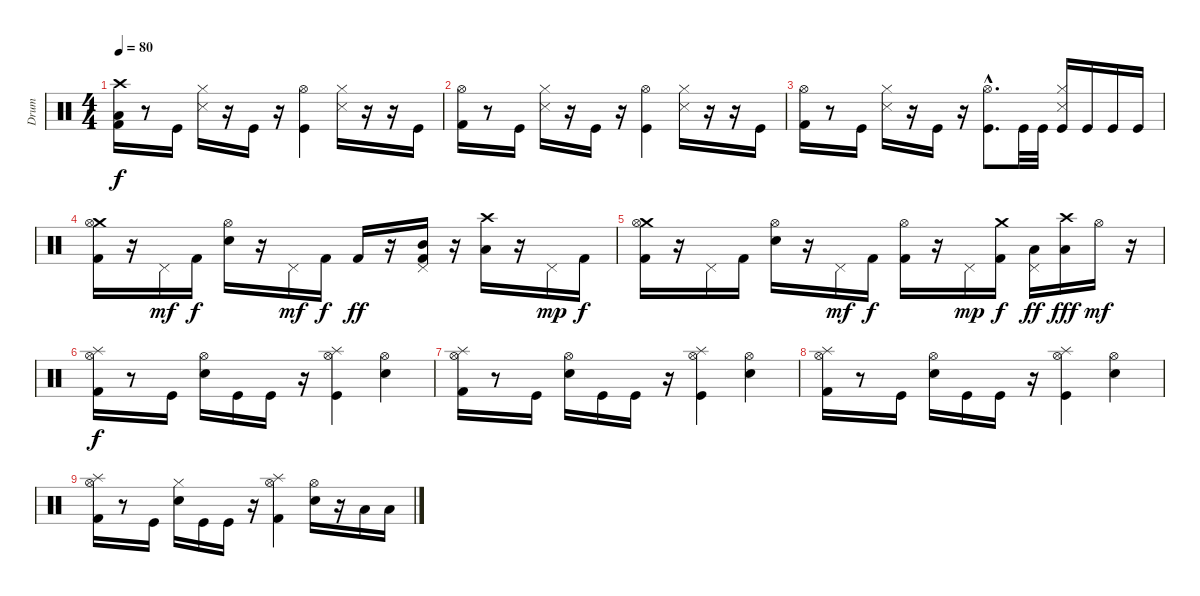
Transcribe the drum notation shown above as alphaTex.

\track ("Drum" "Drum") {instrument percussion}
\staff {score}
\articulation defaults
\ts (4 4)
\tempo 80
\clef neutral
\ks c
("Crash high (hit)" "Low Floor Tom (hit)" "Kick (hit) 2").16{dy f} r.8 "Kick (hit)".16 ("Hi-Hat (closed)" "Snare (side stick) 3").16 r.16 "Kick (hit)".16 r.16 ("Hi-Hat (open)" "Kick (hit)").4 ("Hi-Hat (closed)" "Snare (side stick) 3").16 r.16 r.16 "Kick (hit)".16 |
("Hi-Hat (open)" "Kick (hit) 2").16 r.8 "Kick (hit)".16 ("Hi-Hat (closed)" "Snare (side stick) 3").16 r.16 "Kick (hit)".16 r.16 ("Hi-Hat (open)" "Kick (hit)").4 ("Hi-Hat (closed)" "Snare (side stick) 3").16 r.16 r.16 "Kick (hit)".16 |
("Hi-Hat (open)" "Kick (hit) 2").16 r.8 "Kick (hit)".16 ("Hi-Hat (closed)" "Snare (side stick) 3").16 r.16 "Kick (hit)".16 r.16 ("Hi-Hat (open)"{hac} "Kick (hit)"{hac}).8{d} "Kick (hit)".32 "Kick (hit)".32 ("Hi-Hat (closed)" "Snare (side stick) 3" "Kick (hit)").16 "Kick (hit)".16 "Kick (hit)".16 "Kick (hit)".16 |
("Crash medium (hit)" "Hi-Hat (open)" "Kick (hit) 2").16 r.16 "Pedal Hi-Hat (hit)".16{dy mf} "Kick (hit) 2".16{dy f} ("Hi-Hat (open)" "Snare (hit) 2").16 r.16 "Pedal Hi-Hat (hit)".16{dy mf} "Kick (hit) 2".16{dy f} "Kick (hit) 2".16{dy ff} r.16 ("Pedal Hi-Hat (hit)" "Mid Tom (hit)" "Kick (hit) 2").16 r.16 ("Crash high (hit)" "Low Tom (hit)").16 r.16 "Pedal Hi-Hat (hit)".16{dy mp} "Kick (hit) 2".16{dy f} |
("Crash medium (hit)" "Hi-Hat (open)" "Kick (hit) 2").16 r.16 "Pedal Hi-Hat (hit)".16 "Kick (hit) 2".16 ("Hi-Hat (open)" "Snare (hit) 2").16 r.16 "Pedal Hi-Hat (hit)".16{dy mf} "Kick (hit) 2".16{dy f} ("Hi-Hat (open)" "Kick (hit) 2").16 r.16 "Pedal Hi-Hat (hit)".16{dy mp} ("Crash medium (hit)" "Kick (hit) 2").16{dy f} ("Low Tom (hit)" "Pedal Hi-Hat (hit)").16{dy ff} ("Crash high (hit)" "Low Tom (hit)").16{dy fff} "Hi-Hat (open)".16{dy mf} r.16 |
("Splash (hit)" "Hi-Hat (open)" "Kick (hit) 2").16{dy f} r.8 "Kick (hit)".16 ("Hi-Hat (open)" "Snare (hit) 2").16 "Kick (hit)".16 "Kick (hit)".16 r.16 ("Splash (hit)" "Hi-Hat (open)" "Kick (hit)").4 ("Hi-Hat (open)" "Snare (hit) 2").4 |
("Splash (hit)" "Hi-Hat (open)" "Kick (hit) 2").16 r.8 "Kick (hit)".16 ("Hi-Hat (open)" "Snare (hit) 2").16 "Kick (hit)".16 "Kick (hit)".16 r.16 ("Splash (hit)" "Hi-Hat (open)" "Kick (hit)").4 ("Hi-Hat (open)" "Snare (hit) 2").4 |
("Splash (hit)" "Hi-Hat (open)" "Kick (hit) 2").16 r.8 "Kick (hit)".16 ("Hi-Hat (open)" "Snare (hit) 2").16 "Kick (hit)".16 "Kick (hit)".16 r.16 ("Splash (hit)" "Hi-Hat (open)" "Kick (hit)").4 ("Hi-Hat (open)" "Snare (hit) 2").4 |
("Splash (hit)" "Hi-Hat (open)" "Kick (hit) 2").16 r.8 "Kick (hit)".16 ("Hi-Hat (closed)" "Snare (hit) 2").16 "Kick (hit)".16 "Kick (hit)".16 r.16 ("Splash (hit)" "Hi-Hat (open)" "Kick (hit) 2").4 ("Hi-Hat (open)" "Snare (hit) 2").16 r.16 "Low Floor Tom (hit)".16 "Low Floor Tom (hit)".16
